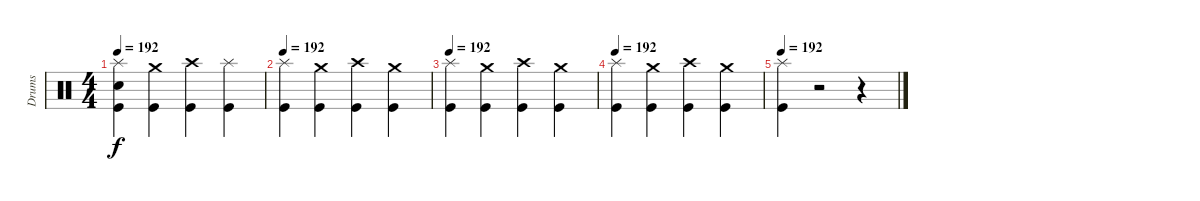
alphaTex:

\track ("Drums" "Drums") {instrument percussion}
\staff {score}
\articulation defaults
\ts (4 4)
\tempo 192
\clef neutral
\ks c
("Kick (hit)" "Electric Snare (hit)" "Splash (hit)").4{dy f} ("Kick (hit)" "Crash medium (hit)").4 ("Kick (hit)" "Crash high (hit)").4 ("Kick (hit)" "Splash (hit)").4 |
\tempo 192
("Kick (hit)" "Splash (hit)").4 ("Kick (hit)" "Crash medium (hit)").4 ("Kick (hit)" "Crash high (hit)").4 ("Kick (hit)" "Crash medium (hit)").4 |
\tempo 192
("Kick (hit)" "Splash (hit)").4 ("Kick (hit)" "Crash medium (hit)").4 ("Kick (hit)" "Crash high (hit)").4 ("Kick (hit)" "Crash medium (hit)").4 |
\tempo 192
("Kick (hit)" "Splash (hit)").4 ("Kick (hit)" "Crash medium (hit)").4 ("Kick (hit)" "Crash high (hit)").4 ("Kick (hit)" "Crash medium (hit)").4 |
\tempo 192
("Kick (hit)" "Splash (hit)").4 r.2 r.4
